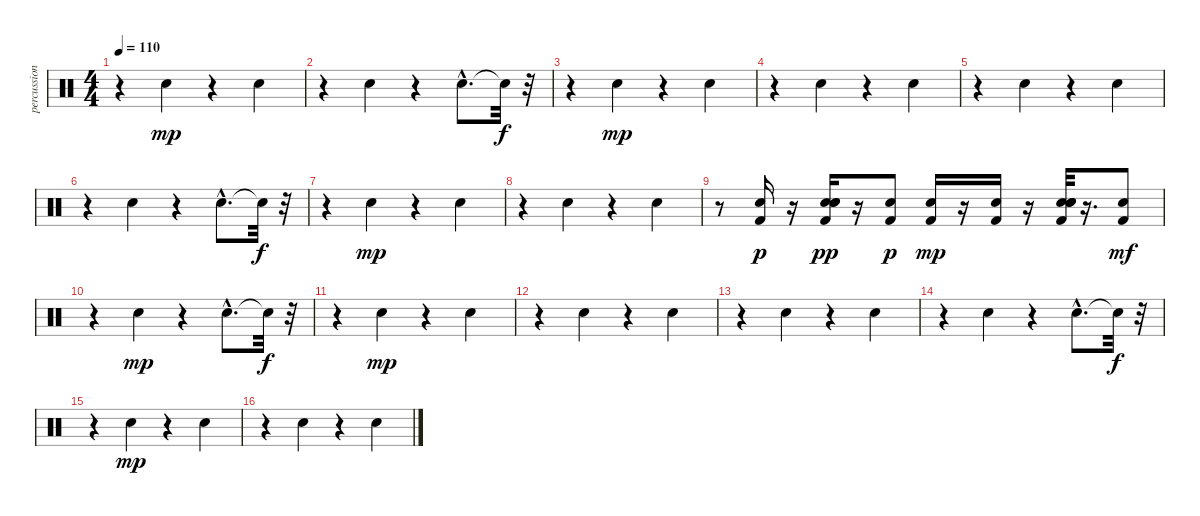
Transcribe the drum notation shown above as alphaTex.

\track ("percussions 3" "percussion") {instrument percussion}
\staff {score}
\articulation defaults
\ts (4 4)
\tempo 110
\clef neutral
\ks c
r.4{dy mp} "Electric Snare (hit)".4 r.4 "Electric Snare (hit)".4 |
r.4 "Electric Snare (hit)".4 r.4 "Electric Snare (hit)"{hac}.8{d} "Snare (hit)"{t}.32{dy f} r.32 |
r.4 "Electric Snare (hit)".4{dy mp} r.4 "Electric Snare (hit)".4 |
r.4 "Electric Snare (hit)".4 r.4 "Electric Snare (hit)".4 |
r.4 "Electric Snare (hit)".4 r.4 "Electric Snare (hit)".4 |
r.4 "Electric Snare (hit)".4 r.4 "Electric Snare (hit)"{hac}.8{d} "Snare (hit)"{t}.32{dy f} r.32 |
r.4 "Electric Snare (hit)".4{dy mp} r.4 "Electric Snare (hit)".4 |
r.4 "Electric Snare (hit)".4 r.4 "Electric Snare (hit)".4 |
r.8 ("Electric Snare (hit)" "Kick (hit) 2").16{dy p} r.16 ("Electric Snare (hit)" "Electric Snare (hit)" "Kick (hit) 2" "Electric Snare (hit)").16{dy pp} r.16 ("Kick (hit) 2" "Electric Snare (hit)").8{dy p} ("Kick (hit) 2" "Electric Snare (hit)").16{dy mp} r.16 ("Kick (hit) 2" "Electric Snare (hit)").16 r.16 ("Electric Snare (hit)" "Electric Snare (hit)" "Kick (hit) 2" "Electric Snare (hit)").32 r.16{d} ("Kick (hit) 2" "Electric Snare (hit)").8{dy mf} |
r.4 "Electric Snare (hit)".4{dy mp} r.4 "Electric Snare (hit)"{hac}.8{d} "Snare (hit)"{t}.32{dy f} r.32 |
r.4 "Electric Snare (hit)".4{dy mp} r.4 "Electric Snare (hit)".4 |
r.4 "Electric Snare (hit)".4 r.4 "Electric Snare (hit)".4 |
r.4 "Electric Snare (hit)".4 r.4 "Electric Snare (hit)".4 |
r.4 "Electric Snare (hit)".4 r.4 "Electric Snare (hit)"{hac}.8{d} "Snare (hit)"{t}.32{dy f} r.32 |
r.4 "Electric Snare (hit)".4{dy mp} r.4 "Electric Snare (hit)".4 |
r.4 "Electric Snare (hit)".4 r.4 "Electric Snare (hit)".4
